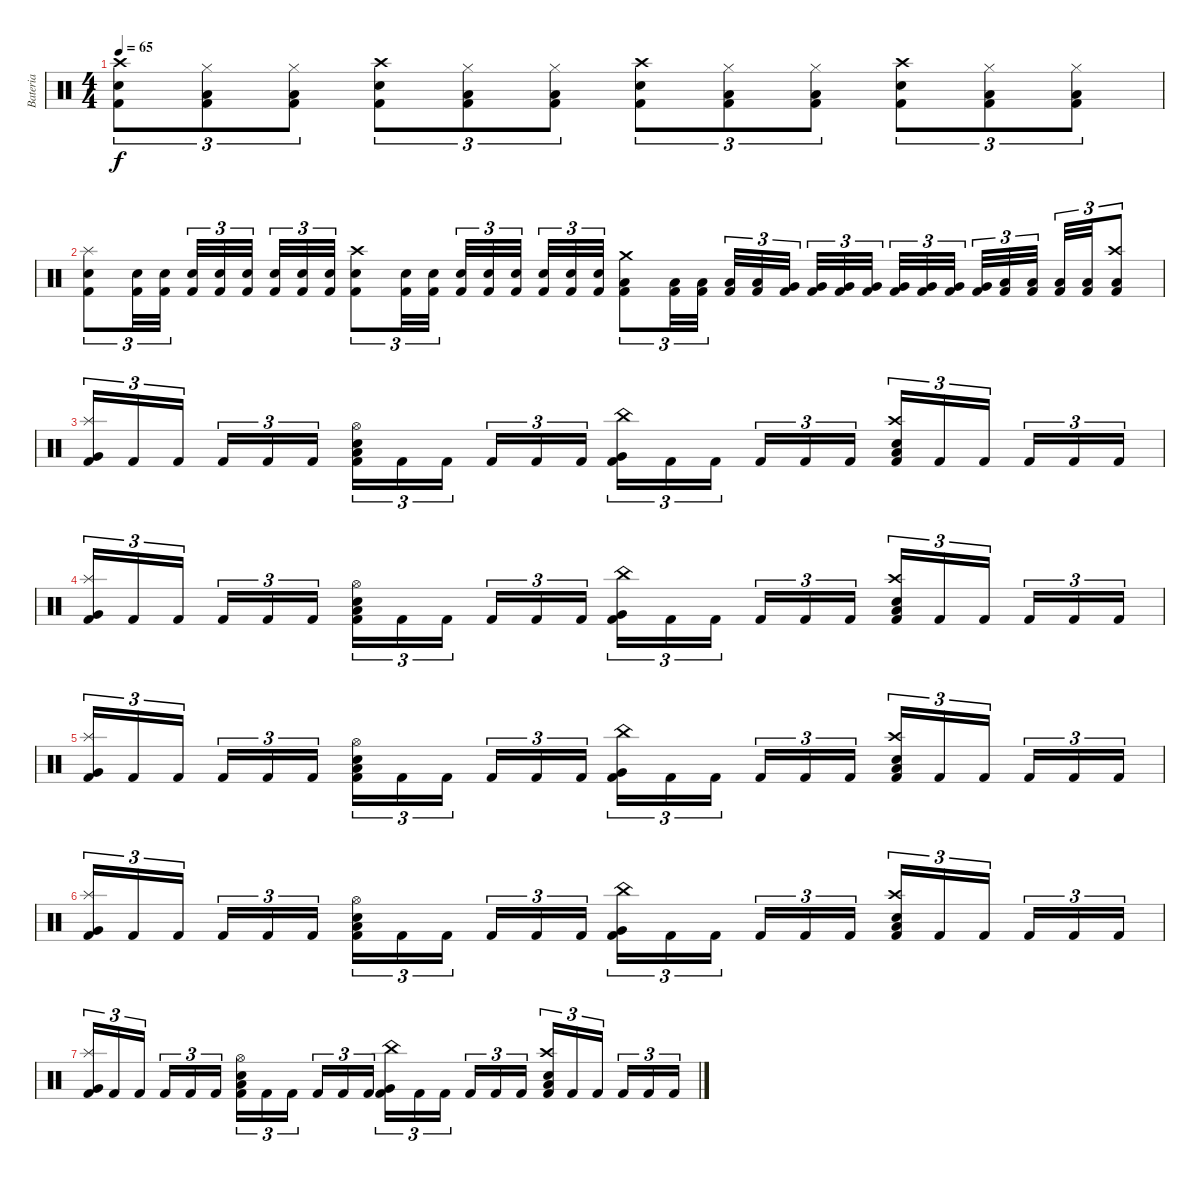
\track ("Bateria" "Bateria") {instrument percussion}
\staff {score}
\articulation defaults
\ts (4 4)
\tempo 65
\clef neutral
\ks c
("Kick (hit) 2" "Snare (hit) 2" "Crash high (hit)").8{tu (3 2) dy f} ("Kick (hit) 2" "Low Floor Tom (hit)" "Hi-Hat (closed)").8{tu (3 2)} ("Kick (hit) 2" "Low Floor Tom (hit)" "Hi-Hat (closed)").8{tu (3 2)} ("Kick (hit) 2" "Snare (hit) 2" "Crash high (hit)").8{tu (3 2)} ("Kick (hit) 2" "Low Floor Tom (hit)" "Hi-Hat (closed)").8{tu (3 2)} ("Kick (hit) 2" "Low Floor Tom (hit)" "Hi-Hat (closed)").8{tu (3 2)} ("Kick (hit) 2" "Snare (hit) 2" "Crash high (hit)").8{tu (3 2)} ("Kick (hit) 2" "Low Floor Tom (hit)" "Hi-Hat (closed)").8{tu (3 2)} ("Kick (hit) 2" "Low Floor Tom (hit)" "Hi-Hat (closed)").8{tu (3 2)} ("Kick (hit) 2" "Snare (hit) 2" "Crash high (hit)").8{tu (3 2)} ("Kick (hit) 2" "Low Floor Tom (hit)" "Hi-Hat (closed)").8{tu (3 2)} ("Kick (hit) 2" "Low Floor Tom (hit)" "Hi-Hat (closed)").8{tu (3 2)} |
("Snare (hit) 2" "Splash (hit)" "Kick (hit) 2").8{tu (3 2)} ("Snare (hit) 2" "Kick (hit) 2").32{tu (3 2)} ("Snare (hit) 2" "Kick (hit) 2").32{tu (3 2) beam splitsecondary} ("Snare (hit) 2" "Kick (hit) 2").32{tu (3 2)} ("Snare (hit) 2" "Kick (hit) 2").32{tu (3 2)} ("Snare (hit) 2" "Kick (hit) 2").32{tu (3 2) beam splitsecondary} ("Snare (hit) 2" "Kick (hit) 2").32{tu (3 2)} ("Snare (hit) 2" "Kick (hit) 2").32{tu (3 2)} ("Snare (hit) 2" "Kick (hit) 2").32{tu (3 2)} ("Snare (hit) 2" "Crash high (hit)" "Kick (hit) 2").8{tu (3 2)} ("Snare (hit) 2" "Kick (hit) 2").32{tu (3 2)} ("Snare (hit) 2" "Kick (hit) 2").32{tu (3 2) beam splitsecondary} ("Snare (hit) 2" "Kick (hit) 2").32{tu (3 2)} ("Snare (hit) 2" "Kick (hit) 2").32{tu (3 2)} ("Snare (hit) 2" "Kick (hit) 2").32{tu (3 2) beam splitsecondary} ("Snare (hit) 2" "Kick (hit) 2").32{tu (3 2)} ("Snare (hit) 2" "Kick (hit) 2").32{tu (3 2)} ("Snare (hit) 2" "Kick (hit) 2").32{tu (3 2)} ("Low Tom (hit)" "Crash medium (hit)" "Kick (hit) 2").8{tu (3 2)} ("Low Tom (hit)" "Kick (hit) 2").32{tu (3 2)} ("Low Tom (hit)" "Kick (hit) 2").32{tu (3 2) beam splitsecondary} ("Low Tom (hit)" "Kick (hit) 2").32{tu (3 2)} ("Low Tom (hit)" "Kick (hit) 2").32{tu (3 2)} ("Very Low Tom (hit)" "Kick (hit) 2").32{tu (3 2) beam splitsecondary} ("Very Low Tom (hit)" "Kick (hit) 2").32{tu (3 2)} ("Very Low Tom (hit)" "Kick (hit) 2").32{tu (3 2)} ("Very Low Tom (hit)" "Kick (hit) 2").32{tu (3 2)} ("Very Low Tom (hit)" "Kick (hit) 2").32{tu (3 2)} ("Very Low Tom (hit)" "Kick (hit) 2").32{tu (3 2)} ("Very Low Tom (hit)" "Kick (hit) 2").32{tu (3 2) beam splitsecondary} ("Very Low Tom (hit)" "Kick (hit) 2").32{tu (3 2)} ("Low Floor Tom (hit)" "Kick (hit) 2").32{tu (3 2)} ("Low Floor Tom (hit)" "Kick (hit) 2").32{tu (3 2) beam splitsecondary} ("Low Floor Tom (hit)" "Kick (hit) 2").32{tu (3 2)} ("Low Floor Tom (hit)" "Kick (hit) 2").32{tu (3 2)} ("Low Tom (hit)" "Crash high (hit)" "Kick (hit) 2").8{tu (3 2)} |
("Splash (hit)" "Very Low Tom (hit)" "Kick (hit) 2").16{tu (3 2)} "Kick (hit) 2".16{tu (3 2)} "Kick (hit) 2".16{tu (3 2) beam splitsecondary} "Kick (hit) 2".16{tu (3 2)} "Kick (hit) 2".16{tu (3 2)} "Kick (hit) 2".16{tu (3 2)} ("Hi-Hat (open)" "Snare (hit) 2" "Low Tom (hit)" "Kick (hit) 2").16{tu (3 2)} "Kick (hit) 2".16{tu (3 2)} "Kick (hit) 2".16{tu (3 2) beam splitsecondary} "Kick (hit) 2".16{tu (3 2)} "Kick (hit) 2".16{tu (3 2)} "Kick (hit) 2".16{tu (3 2)} ("Very Low Tom (hit)" "China (hit)" "Kick (hit) 2").16{tu (3 2)} "Kick (hit) 2".16{tu (3 2)} "Kick (hit) 2".16{tu (3 2) beam splitsecondary} "Kick (hit) 2".16{tu (3 2)} "Kick (hit) 2".16{tu (3 2)} "Kick (hit) 2".16{tu (3 2)} ("Snare (hit) 2" "Crash high (hit)" "Low Tom (hit)" "Kick (hit) 2").16{tu (3 2)} "Kick (hit) 2".16{tu (3 2)} "Kick (hit) 2".16{tu (3 2) beam splitsecondary} "Kick (hit) 2".16{tu (3 2)} "Kick (hit) 2".16{tu (3 2)} "Kick (hit) 2".16{tu (3 2)} |
("Splash (hit)" "Very Low Tom (hit)" "Kick (hit) 2").16{tu (3 2)} "Kick (hit) 2".16{tu (3 2)} "Kick (hit) 2".16{tu (3 2) beam splitsecondary} "Kick (hit) 2".16{tu (3 2)} "Kick (hit) 2".16{tu (3 2)} "Kick (hit) 2".16{tu (3 2)} ("Hi-Hat (open)" "Snare (hit) 2" "Low Tom (hit)" "Kick (hit) 2").16{tu (3 2)} "Kick (hit) 2".16{tu (3 2)} "Kick (hit) 2".16{tu (3 2) beam splitsecondary} "Kick (hit) 2".16{tu (3 2)} "Kick (hit) 2".16{tu (3 2)} "Kick (hit) 2".16{tu (3 2)} ("Very Low Tom (hit)" "China (hit)" "Kick (hit) 2").16{tu (3 2)} "Kick (hit) 2".16{tu (3 2)} "Kick (hit) 2".16{tu (3 2) beam splitsecondary} "Kick (hit) 2".16{tu (3 2)} "Kick (hit) 2".16{tu (3 2)} "Kick (hit) 2".16{tu (3 2)} ("Snare (hit) 2" "Crash high (hit)" "Low Tom (hit)" "Kick (hit) 2").16{tu (3 2)} "Kick (hit) 2".16{tu (3 2)} "Kick (hit) 2".16{tu (3 2) beam splitsecondary} "Kick (hit) 2".16{tu (3 2)} "Kick (hit) 2".16{tu (3 2)} "Kick (hit) 2".16{tu (3 2)} |
("Splash (hit)" "Very Low Tom (hit)" "Kick (hit) 2").16{tu (3 2)} "Kick (hit) 2".16{tu (3 2)} "Kick (hit) 2".16{tu (3 2) beam splitsecondary} "Kick (hit) 2".16{tu (3 2)} "Kick (hit) 2".16{tu (3 2)} "Kick (hit) 2".16{tu (3 2)} ("Hi-Hat (open)" "Snare (hit) 2" "Low Tom (hit)" "Kick (hit) 2").16{tu (3 2)} "Kick (hit) 2".16{tu (3 2)} "Kick (hit) 2".16{tu (3 2) beam splitsecondary} "Kick (hit) 2".16{tu (3 2)} "Kick (hit) 2".16{tu (3 2)} "Kick (hit) 2".16{tu (3 2)} ("Very Low Tom (hit)" "China (hit)" "Kick (hit) 2").16{tu (3 2)} "Kick (hit) 2".16{tu (3 2)} "Kick (hit) 2".16{tu (3 2) beam splitsecondary} "Kick (hit) 2".16{tu (3 2)} "Kick (hit) 2".16{tu (3 2)} "Kick (hit) 2".16{tu (3 2)} ("Snare (hit) 2" "Crash high (hit)" "Low Tom (hit)" "Kick (hit) 2").16{tu (3 2)} "Kick (hit) 2".16{tu (3 2)} "Kick (hit) 2".16{tu (3 2) beam splitsecondary} "Kick (hit) 2".16{tu (3 2)} "Kick (hit) 2".16{tu (3 2)} "Kick (hit) 2".16{tu (3 2)} |
("Splash (hit)" "Very Low Tom (hit)" "Kick (hit) 2").16{tu (3 2)} "Kick (hit) 2".16{tu (3 2)} "Kick (hit) 2".16{tu (3 2) beam splitsecondary} "Kick (hit) 2".16{tu (3 2)} "Kick (hit) 2".16{tu (3 2)} "Kick (hit) 2".16{tu (3 2)} ("Hi-Hat (open)" "Snare (hit) 2" "Low Tom (hit)" "Kick (hit) 2").16{tu (3 2)} "Kick (hit) 2".16{tu (3 2)} "Kick (hit) 2".16{tu (3 2) beam splitsecondary} "Kick (hit) 2".16{tu (3 2)} "Kick (hit) 2".16{tu (3 2)} "Kick (hit) 2".16{tu (3 2)} ("Very Low Tom (hit)" "China (hit)" "Kick (hit) 2").16{tu (3 2)} "Kick (hit) 2".16{tu (3 2)} "Kick (hit) 2".16{tu (3 2) beam splitsecondary} "Kick (hit) 2".16{tu (3 2)} "Kick (hit) 2".16{tu (3 2)} "Kick (hit) 2".16{tu (3 2)} ("Snare (hit) 2" "Crash high (hit)" "Low Tom (hit)" "Kick (hit) 2").16{tu (3 2)} "Kick (hit) 2".16{tu (3 2)} "Kick (hit) 2".16{tu (3 2) beam splitsecondary} "Kick (hit) 2".16{tu (3 2)} "Kick (hit) 2".16{tu (3 2)} "Kick (hit) 2".16{tu (3 2)} |
("Splash (hit)" "Very Low Tom (hit)" "Kick (hit) 2").16{tu (3 2)} "Kick (hit) 2".16{tu (3 2)} "Kick (hit) 2".16{tu (3 2) beam splitsecondary} "Kick (hit) 2".16{tu (3 2)} "Kick (hit) 2".16{tu (3 2)} "Kick (hit) 2".16{tu (3 2)} ("Hi-Hat (open)" "Snare (hit) 2" "Low Tom (hit)" "Kick (hit) 2").16{tu (3 2)} "Kick (hit) 2".16{tu (3 2)} "Kick (hit) 2".16{tu (3 2) beam splitsecondary} "Kick (hit) 2".16{tu (3 2)} "Kick (hit) 2".16{tu (3 2)} "Kick (hit) 2".16{tu (3 2)} ("Very Low Tom (hit)" "China (hit)" "Kick (hit) 2").16{tu (3 2)} "Kick (hit) 2".16{tu (3 2)} "Kick (hit) 2".16{tu (3 2) beam splitsecondary} "Kick (hit) 2".16{tu (3 2)} "Kick (hit) 2".16{tu (3 2)} "Kick (hit) 2".16{tu (3 2)} ("Snare (hit) 2" "Crash high (hit)" "Low Tom (hit)" "Kick (hit) 2").16{tu (3 2)} "Kick (hit) 2".16{tu (3 2)} "Kick (hit) 2".16{tu (3 2) beam splitsecondary} "Kick (hit) 2".16{tu (3 2)} "Kick (hit) 2".16{tu (3 2)} "Kick (hit) 2".16{tu (3 2)}
